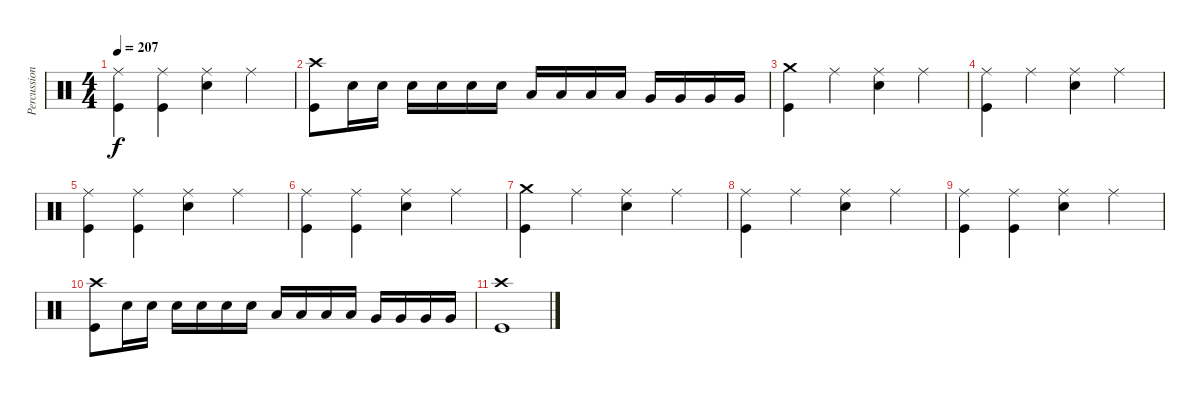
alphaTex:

\track ("Percussion" "Percussion") {instrument percussion}
\staff {score}
\articulation defaults
\ts (4 4)
\tempo 207
\clef neutral
\ks c
("Ride (middle)" "Kick (hit)").4{dy f} ("Ride (middle)" "Kick (hit)").4 ("Electric Snare (hit)" "Ride (middle)").4 "Ride (middle)".4 |
("Crash high (hit)" "Kick (hit)").8 "Electric Snare (hit)".16 "Electric Snare (hit)".16 "Electric Snare (hit)".16 "Electric Snare (hit)".16 "Electric Snare (hit)".16 "Electric Snare (hit)".16 "Low Tom (hit)".16 "Low Tom (hit)".16 "Low Tom (hit)".16 "Low Tom (hit)".16 "Very Low Tom (hit)".16 "Very Low Tom (hit)".16 "Very Low Tom (hit)".16 "Very Low Tom (hit)".16 |
("Crash medium (hit)" "Kick (hit)").4 "Ride (middle)".4 ("Electric Snare (hit)" "Ride (middle)").4 "Ride (middle)".4 |
("Ride (middle)" "Kick (hit)").4 "Ride (middle)".4 ("Electric Snare (hit)" "Ride (middle)").4 "Ride (middle)".4 |
("Ride (middle)" "Kick (hit)").4 ("Ride (middle)" "Kick (hit)").4 ("Electric Snare (hit)" "Ride (middle)").4 "Ride (middle)".4 |
("Ride (middle)" "Kick (hit)").4 ("Ride (middle)" "Kick (hit)").4 ("Electric Snare (hit)" "Ride (middle)").4 "Ride (middle)".4 |
("Crash medium (hit)" "Kick (hit)").4 "Ride (middle)".4 ("Electric Snare (hit)" "Ride (middle)").4 "Ride (middle)".4 |
("Ride (middle)" "Kick (hit)").4 "Ride (middle)".4 ("Electric Snare (hit)" "Ride (middle)").4 "Ride (middle)".4 |
("Ride (middle)" "Kick (hit)").4 ("Ride (middle)" "Kick (hit)").4 ("Electric Snare (hit)" "Ride (middle)").4 "Ride (middle)".4 |
("Crash high (hit)" "Kick (hit)").8 "Electric Snare (hit)".16 "Electric Snare (hit)".16 "Electric Snare (hit)".16 "Electric Snare (hit)".16 "Electric Snare (hit)".16 "Electric Snare (hit)".16 "Low Tom (hit)".16 "Low Tom (hit)".16 "Low Tom (hit)".16 "Low Tom (hit)".16 "Very Low Tom (hit)".16 "Very Low Tom (hit)".16 "Very Low Tom (hit)".16 "Very Low Tom (hit)".16 |
("Crash high (hit)" "Kick (hit)").1
